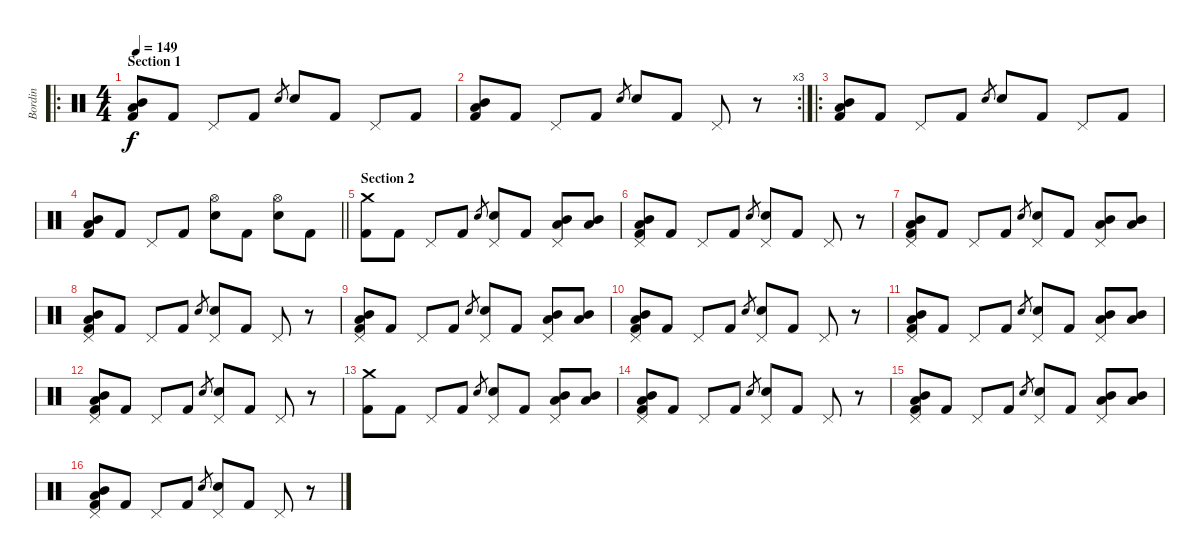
\track ("Bordin" "Bordin") {instrument percussion}
\staff {score}
\articulation defaults
\ro
\ts (4 4)
\section ("" "Section 1")
\tempo 149
\clef neutral
\ks c
("Mid Tom (hit)" "Low Tom (hit)" "Kick (hit) 2").8{dy f} "Kick (hit) 2".8 "Pedal Hi-Hat (hit)".8 "Kick (hit) 2".8 "Electric Snare (hit)".8{gr} "Electric Snare (hit)".8 "Kick (hit) 2".8 "Pedal Hi-Hat (hit)".8 "Kick (hit) 2".8 |
\rc 3
("Mid Tom (hit)" "Low Tom (hit)" "Kick (hit) 2").8 "Kick (hit) 2".8 "Pedal Hi-Hat (hit)".8 "Kick (hit) 2".8 "Electric Snare (hit)".8{gr} "Electric Snare (hit)".8 "Kick (hit) 2".8 "Pedal Hi-Hat (hit)".8 r.8 |
\ro
("Mid Tom (hit)" "Low Tom (hit)" "Kick (hit) 2").8 "Kick (hit) 2".8 "Pedal Hi-Hat (hit)".8 "Kick (hit) 2".8 "Electric Snare (hit)".8{gr} "Electric Snare (hit)".8 "Kick (hit) 2".8 "Pedal Hi-Hat (hit)".8 "Kick (hit) 2".8 |
\barLineRight lightlight
("Mid Tom (hit)" "Low Tom (hit)" "Kick (hit) 2").8 "Kick (hit) 2".8 "Pedal Hi-Hat (hit)".8 "Kick (hit) 2".8 ("Hi-Hat (open)" "Electric Snare (hit)").8 "Kick (hit) 2".8 ("Hi-Hat (open)" "Electric Snare (hit)").8 "Kick (hit) 2".8 |
\section ("" "Section 2")
("Crash medium (hit)" "Kick (hit) 2").8 "Kick (hit) 2".8 "Pedal Hi-Hat (hit)".8 "Kick (hit) 2".8 "Electric Snare (hit)".8{gr} ("Pedal Hi-Hat (hit)" "Electric Snare (hit)").8 "Kick (hit) 2".8 ("Low Tom (hit)" "Mid Tom (hit)" "Pedal Hi-Hat (hit)").8 ("Low Tom (hit)" "Mid Tom (hit)").8 |
("Mid Tom (hit)" "Low Tom (hit)" "Pedal Hi-Hat (hit)" "Kick (hit) 2").8 "Kick (hit) 2".8 "Pedal Hi-Hat (hit)".8 "Kick (hit) 2".8 "Electric Snare (hit)".8{gr} ("Pedal Hi-Hat (hit)" "Electric Snare (hit)").8 "Kick (hit) 2".8 "Pedal Hi-Hat (hit)".8 r.8 |
("Mid Tom (hit)" "Low Tom (hit)" "Pedal Hi-Hat (hit)" "Kick (hit) 2").8 "Kick (hit) 2".8 "Pedal Hi-Hat (hit)".8 "Kick (hit) 2".8 "Electric Snare (hit)".8{gr} ("Pedal Hi-Hat (hit)" "Electric Snare (hit)").8 "Kick (hit) 2".8 ("Low Tom (hit)" "Mid Tom (hit)" "Pedal Hi-Hat (hit)").8 ("Low Tom (hit)" "Mid Tom (hit)").8 |
("Mid Tom (hit)" "Low Tom (hit)" "Pedal Hi-Hat (hit)" "Kick (hit) 2").8 "Kick (hit) 2".8 "Pedal Hi-Hat (hit)".8 "Kick (hit) 2".8 "Electric Snare (hit)".8{gr} ("Pedal Hi-Hat (hit)" "Electric Snare (hit)").8 "Kick (hit) 2".8 "Pedal Hi-Hat (hit)".8 r.8 |
("Mid Tom (hit)" "Low Tom (hit)" "Pedal Hi-Hat (hit)" "Kick (hit) 2").8 "Kick (hit) 2".8 "Pedal Hi-Hat (hit)".8 "Kick (hit) 2".8 "Electric Snare (hit)".8{gr} ("Pedal Hi-Hat (hit)" "Electric Snare (hit)").8 "Kick (hit) 2".8 ("Low Tom (hit)" "Mid Tom (hit)" "Pedal Hi-Hat (hit)").8 ("Low Tom (hit)" "Mid Tom (hit)").8 |
("Mid Tom (hit)" "Low Tom (hit)" "Pedal Hi-Hat (hit)" "Kick (hit) 2").8 "Kick (hit) 2".8 "Pedal Hi-Hat (hit)".8 "Kick (hit) 2".8 "Electric Snare (hit)".8{gr} ("Pedal Hi-Hat (hit)" "Electric Snare (hit)").8 "Kick (hit) 2".8 "Pedal Hi-Hat (hit)".8 r.8 |
("Mid Tom (hit)" "Low Tom (hit)" "Pedal Hi-Hat (hit)" "Kick (hit) 2").8 "Kick (hit) 2".8 "Pedal Hi-Hat (hit)".8 "Kick (hit) 2".8 "Electric Snare (hit)".8{gr} ("Pedal Hi-Hat (hit)" "Electric Snare (hit)").8 "Kick (hit) 2".8 ("Low Tom (hit)" "Mid Tom (hit)" "Pedal Hi-Hat (hit)").8 ("Low Tom (hit)" "Mid Tom (hit)").8 |
("Mid Tom (hit)" "Low Tom (hit)" "Pedal Hi-Hat (hit)" "Kick (hit) 2").8 "Kick (hit) 2".8 "Pedal Hi-Hat (hit)".8 "Kick (hit) 2".8 "Electric Snare (hit)".8{gr} ("Pedal Hi-Hat (hit)" "Electric Snare (hit)").8 "Kick (hit) 2".8 "Pedal Hi-Hat (hit)".8 r.8 |
("Crash medium (hit)" "Kick (hit) 2").8 "Kick (hit) 2".8 "Pedal Hi-Hat (hit)".8 "Kick (hit) 2".8 "Electric Snare (hit)".8{gr} ("Pedal Hi-Hat (hit)" "Electric Snare (hit)").8 "Kick (hit) 2".8 ("Low Tom (hit)" "Mid Tom (hit)" "Pedal Hi-Hat (hit)").8 ("Low Tom (hit)" "Mid Tom (hit)").8 |
("Mid Tom (hit)" "Low Tom (hit)" "Pedal Hi-Hat (hit)" "Kick (hit) 2").8 "Kick (hit) 2".8 "Pedal Hi-Hat (hit)".8 "Kick (hit) 2".8 "Electric Snare (hit)".8{gr} ("Pedal Hi-Hat (hit)" "Electric Snare (hit)").8 "Kick (hit) 2".8 "Pedal Hi-Hat (hit)".8 r.8 |
("Mid Tom (hit)" "Low Tom (hit)" "Pedal Hi-Hat (hit)" "Kick (hit) 2").8 "Kick (hit) 2".8 "Pedal Hi-Hat (hit)".8 "Kick (hit) 2".8 "Electric Snare (hit)".8{gr} ("Pedal Hi-Hat (hit)" "Electric Snare (hit)").8 "Kick (hit) 2".8 ("Low Tom (hit)" "Mid Tom (hit)" "Pedal Hi-Hat (hit)").8 ("Low Tom (hit)" "Mid Tom (hit)").8 |
("Mid Tom (hit)" "Low Tom (hit)" "Pedal Hi-Hat (hit)" "Kick (hit) 2").8 "Kick (hit) 2".8 "Pedal Hi-Hat (hit)".8 "Kick (hit) 2".8 "Electric Snare (hit)".8{gr} ("Pedal Hi-Hat (hit)" "Electric Snare (hit)").8 "Kick (hit) 2".8 "Pedal Hi-Hat (hit)".8 r.8
